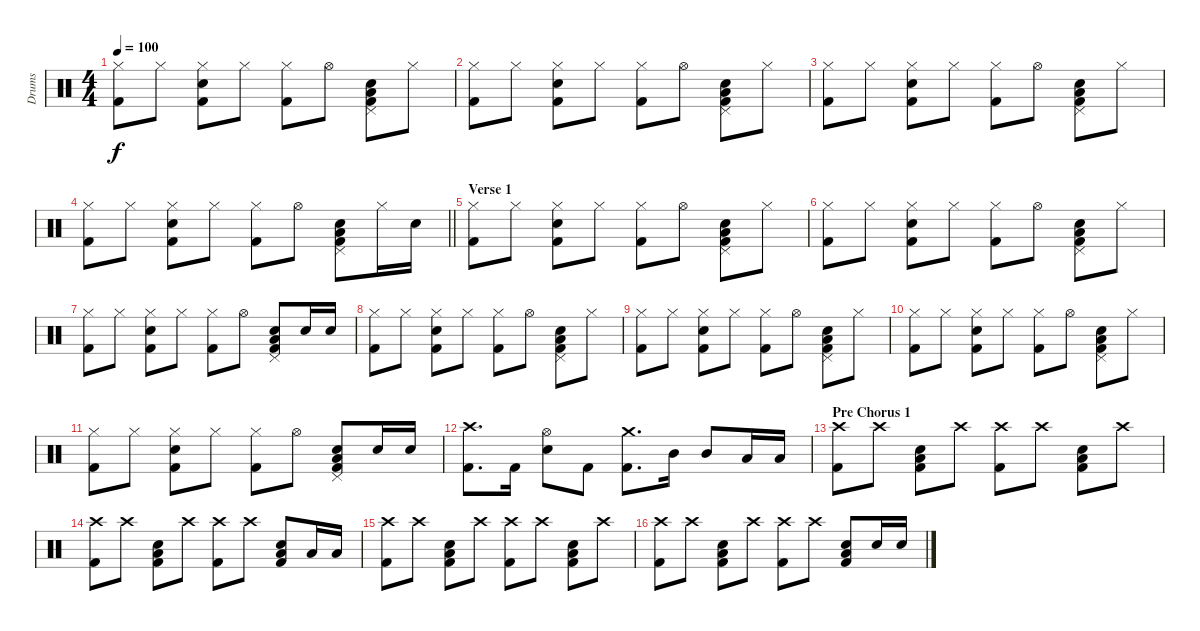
\track ("Drums" "Drums") {instrument percussion}
\staff {score}
\articulation defaults
\ts (4 4)
\tempo 100
\clef neutral
\ks c
("Kick (hit) 2" "Hi-Hat (closed)").8{dy f} "Hi-Hat (closed)".8 ("Kick (hit) 2" "Snare (hit) 2" "Hi-Hat (closed)").8 "Hi-Hat (closed)".8 ("Hi-Hat (closed)" "Kick (hit) 2").8 "Hi-Hat (open)".8 ("Kick (hit) 2" "Pedal Hi-Hat (hit)" "Snare (hit) 2" "Low Floor Tom (hit)").8 "Hi-Hat (closed)".8 |
("Kick (hit) 2" "Hi-Hat (closed)").8 "Hi-Hat (closed)".8 ("Kick (hit) 2" "Snare (hit) 2" "Hi-Hat (closed)").8 "Hi-Hat (closed)".8 ("Hi-Hat (closed)" "Kick (hit) 2").8 "Hi-Hat (open)".8 ("Kick (hit) 2" "Pedal Hi-Hat (hit)" "Snare (hit) 2" "Low Floor Tom (hit)").8 "Hi-Hat (closed)".8 |
("Kick (hit) 2" "Hi-Hat (closed)").8 "Hi-Hat (closed)".8 ("Kick (hit) 2" "Snare (hit) 2" "Hi-Hat (closed)").8 "Hi-Hat (closed)".8 ("Hi-Hat (closed)" "Kick (hit) 2").8 "Hi-Hat (open)".8 ("Kick (hit) 2" "Pedal Hi-Hat (hit)" "Snare (hit) 2" "Low Floor Tom (hit)").8 "Hi-Hat (closed)".8 |
\barLineRight lightlight
("Kick (hit) 2" "Hi-Hat (closed)").8 "Hi-Hat (closed)".8 ("Kick (hit) 2" "Snare (hit) 2" "Hi-Hat (closed)").8 "Hi-Hat (closed)".8 ("Hi-Hat (closed)" "Kick (hit) 2").8 "Hi-Hat (open)".8 ("Kick (hit) 2" "Pedal Hi-Hat (hit)" "Snare (hit) 2" "Low Floor Tom (hit)").8 "Hi-Hat (closed)".16 "Snare (hit) 2".16 |
\section ("" "Verse 1")
("Kick (hit) 2" "Hi-Hat (closed)").8 "Hi-Hat (closed)".8 ("Kick (hit) 2" "Snare (hit) 2" "Hi-Hat (closed)").8 "Hi-Hat (closed)".8 ("Hi-Hat (closed)" "Kick (hit) 2").8 "Hi-Hat (open)".8 ("Kick (hit) 2" "Pedal Hi-Hat (hit)" "Snare (hit) 2" "Low Floor Tom (hit)").8 "Hi-Hat (closed)".8 |
("Kick (hit) 2" "Hi-Hat (closed)").8 "Hi-Hat (closed)".8 ("Kick (hit) 2" "Snare (hit) 2" "Hi-Hat (closed)").8 "Hi-Hat (closed)".8 ("Hi-Hat (closed)" "Kick (hit) 2").8 "Hi-Hat (open)".8 ("Kick (hit) 2" "Pedal Hi-Hat (hit)" "Snare (hit) 2" "Low Floor Tom (hit)").8 "Hi-Hat (closed)".8 |
("Kick (hit) 2" "Hi-Hat (closed)").8 "Hi-Hat (closed)".8 ("Kick (hit) 2" "Snare (hit) 2" "Hi-Hat (closed)").8 "Hi-Hat (closed)".8 ("Hi-Hat (closed)" "Kick (hit) 2").8 "Hi-Hat (open)".8 ("Kick (hit) 2" "Pedal Hi-Hat (hit)" "Snare (hit) 2" "Low Floor Tom (hit)").8 "Snare (hit) 2".16 "Snare (hit) 2".16 |
("Kick (hit) 2" "Hi-Hat (closed)").8 "Hi-Hat (closed)".8 ("Kick (hit) 2" "Snare (hit) 2" "Hi-Hat (closed)").8 "Hi-Hat (closed)".8 ("Hi-Hat (closed)" "Kick (hit) 2").8 "Hi-Hat (open)".8 ("Kick (hit) 2" "Pedal Hi-Hat (hit)" "Snare (hit) 2" "Low Floor Tom (hit)").8 "Hi-Hat (closed)".8 |
("Kick (hit) 2" "Hi-Hat (closed)").8 "Hi-Hat (closed)".8 ("Kick (hit) 2" "Snare (hit) 2" "Hi-Hat (closed)").8 "Hi-Hat (closed)".8 ("Hi-Hat (closed)" "Kick (hit) 2").8 "Hi-Hat (open)".8 ("Kick (hit) 2" "Pedal Hi-Hat (hit)" "Snare (hit) 2" "Low Floor Tom (hit)").8 "Hi-Hat (closed)".8 |
("Kick (hit) 2" "Hi-Hat (closed)").8 "Hi-Hat (closed)".8 ("Kick (hit) 2" "Snare (hit) 2" "Hi-Hat (closed)").8 "Hi-Hat (closed)".8 ("Hi-Hat (closed)" "Kick (hit) 2").8 "Hi-Hat (open)".8 ("Kick (hit) 2" "Pedal Hi-Hat (hit)" "Snare (hit) 2" "Low Floor Tom (hit)").8 "Hi-Hat (closed)".8 |
("Kick (hit) 2" "Hi-Hat (closed)").8 "Hi-Hat (closed)".8 ("Kick (hit) 2" "Snare (hit) 2" "Hi-Hat (closed)").8 "Hi-Hat (closed)".8 ("Hi-Hat (closed)" "Kick (hit) 2").8 "Hi-Hat (open)".8 ("Kick (hit) 2" "Pedal Hi-Hat (hit)" "Snare (hit) 2" "Low Floor Tom (hit)").8 "Snare (hit) 2".16 "Snare (hit) 2".16 |
("Crash high (hit)" "Kick (hit) 2").8{d} "Kick (hit) 2".16 ("Hi-Hat (open)" "Snare (hit) 2").8 "Kick (hit) 2".8 ("Kick (hit) 2" "Crash medium (hit)").8{d} "Mid Tom (hit)".16 "Mid Tom (hit)".8 "Low Tom (hit)".16 "Low Tom (hit)".16 |
\section ("" "Pre Chorus 1")
("Kick (hit) 2" "Crash high (hit)").8 "Crash high (hit)".8 ("Kick (hit) 2" "Snare (hit) 2" "Low Floor Tom (hit)").8 "Crash high (hit)".8 ("Kick (hit) 2" "Crash high (hit)").8 "Crash high (hit)".8 ("Kick (hit) 2" "Snare (hit) 2" "Low Floor Tom (hit)").8 "Crash high (hit)".8 |
("Crash high (hit)" "Kick (hit) 2").8 "Crash high (hit)".8 ("Kick (hit) 2" "Snare (hit) 2" "Low Floor Tom (hit)").8 "Crash high (hit)".8 ("Kick (hit) 2" "Crash high (hit)").8 "Crash high (hit)".8 ("Kick (hit) 2" "Snare (hit) 2" "Low Floor Tom (hit)").8 "Low Tom (hit)".16 "Low Tom (hit)".16 |
("Kick (hit) 2" "Crash high (hit)").8 "Crash high (hit)".8 ("Kick (hit) 2" "Snare (hit) 2" "Low Floor Tom (hit)").8 "Crash high (hit)".8 ("Kick (hit) 2" "Crash high (hit)").8 "Crash high (hit)".8 ("Kick (hit) 2" "Snare (hit) 2" "Low Floor Tom (hit)").8 "Crash high (hit)".8 |
("Crash high (hit)" "Kick (hit) 2").8 "Crash high (hit)".8 ("Kick (hit) 2" "Snare (hit) 2" "Low Floor Tom (hit)").8 "Crash high (hit)".8 ("Kick (hit) 2" "Crash high (hit)").8 "Crash high (hit)".8 ("Kick (hit) 2" "Snare (hit) 2" "Low Floor Tom (hit)").8 "Snare (hit) 2".16 "Snare (hit) 2".16
